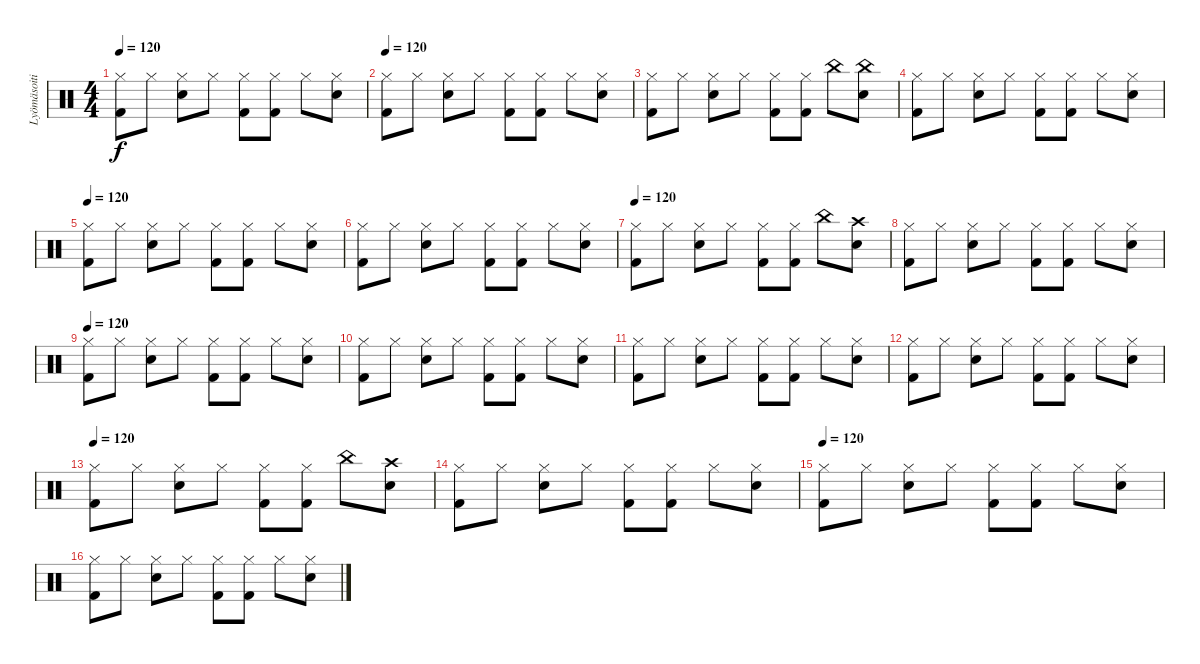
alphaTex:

\track ("Lyömäsoitin" "Lyömäsoiti") {instrument percussion}
\staff {score}
\articulation defaults
\ts (4 4)
\tempo 120
\clef neutral
\ks c
("Hi-Hat (closed)" "Kick (hit) 2").8{dy f} "Hi-Hat (closed)".8 ("Hi-Hat (closed)" "Snare (hit) 2").8 "Hi-Hat (closed)".8 ("Hi-Hat (closed)" "Kick (hit) 2").8 ("Hi-Hat (closed)" "Kick (hit) 2").8 "Hi-Hat (closed)".8 ("Hi-Hat (closed)" "Snare (hit) 2").8 |
\tempo 120
("Hi-Hat (closed)" "Kick (hit) 2").8 "Hi-Hat (closed)".8 ("Hi-Hat (closed)" "Snare (hit) 2").8 "Hi-Hat (closed)".8 ("Hi-Hat (closed)" "Kick (hit) 2").8 ("Hi-Hat (closed)" "Kick (hit) 2").8 "Hi-Hat (closed)".8 ("Hi-Hat (closed)" "Snare (hit) 2").8 |
("Hi-Hat (closed)" "Kick (hit) 2").8 "Hi-Hat (closed)".8 ("Hi-Hat (closed)" "Snare (hit) 2").8 "Hi-Hat (closed)".8 ("Hi-Hat (closed)" "Kick (hit) 2").8 ("Hi-Hat (closed)" "Kick (hit) 2").8 "China (hit)".8 ("China (hit)" "Snare (hit) 2").8 |
("Hi-Hat (closed)" "Kick (hit) 2").8 "Hi-Hat (closed)".8 ("Hi-Hat (closed)" "Snare (hit) 2").8 "Hi-Hat (closed)".8 ("Hi-Hat (closed)" "Kick (hit) 2").8 ("Hi-Hat (closed)" "Kick (hit) 2").8 "Hi-Hat (closed)".8 ("Hi-Hat (closed)" "Snare (hit) 2").8 |
\tempo 120
("Hi-Hat (closed)" "Kick (hit) 2").8 "Hi-Hat (closed)".8 ("Hi-Hat (closed)" "Snare (hit) 2").8 "Hi-Hat (closed)".8 ("Hi-Hat (closed)" "Kick (hit) 2").8 ("Hi-Hat (closed)" "Kick (hit) 2").8 "Hi-Hat (closed)".8 ("Hi-Hat (closed)" "Snare (hit) 2").8 |
("Hi-Hat (closed)" "Kick (hit) 2").8 "Hi-Hat (closed)".8 ("Hi-Hat (closed)" "Snare (hit) 2").8 "Hi-Hat (closed)".8 ("Hi-Hat (closed)" "Kick (hit) 2").8 ("Hi-Hat (closed)" "Kick (hit) 2").8 "Hi-Hat (closed)".8 ("Hi-Hat (closed)" "Snare (hit) 2").8 |
\tempo 120
("Hi-Hat (closed)" "Kick (hit) 2").8 "Hi-Hat (closed)".8 ("Hi-Hat (closed)" "Snare (hit) 2").8 "Hi-Hat (closed)".8 ("Hi-Hat (closed)" "Kick (hit) 2").8 ("Hi-Hat (closed)" "Kick (hit) 2").8 "China (hit)".8 ("Crash high (hit)" "Snare (hit) 2").8 |
("Hi-Hat (closed)" "Kick (hit) 2").8 "Hi-Hat (closed)".8 ("Hi-Hat (closed)" "Snare (hit) 2").8 "Hi-Hat (closed)".8 ("Hi-Hat (closed)" "Kick (hit) 2").8 ("Hi-Hat (closed)" "Kick (hit) 2").8 "Hi-Hat (closed)".8 ("Hi-Hat (closed)" "Snare (hit) 2").8 |
\tempo 120
("Hi-Hat (closed)" "Kick (hit) 2").8 "Hi-Hat (closed)".8 ("Hi-Hat (closed)" "Snare (hit) 2").8 "Hi-Hat (closed)".8 ("Hi-Hat (closed)" "Kick (hit) 2").8 ("Hi-Hat (closed)" "Kick (hit) 2").8 "Hi-Hat (closed)".8 ("Hi-Hat (closed)" "Snare (hit) 2").8 |
("Hi-Hat (closed)" "Kick (hit) 2").8 "Hi-Hat (closed)".8 ("Hi-Hat (closed)" "Snare (hit) 2").8 "Hi-Hat (closed)".8 ("Hi-Hat (closed)" "Kick (hit) 2").8 ("Hi-Hat (closed)" "Kick (hit) 2").8 "Hi-Hat (closed)".8 ("Hi-Hat (closed)" "Snare (hit) 2").8 |
("Hi-Hat (closed)" "Kick (hit) 2").8 "Hi-Hat (closed)".8 ("Hi-Hat (closed)" "Snare (hit) 2").8 "Hi-Hat (closed)".8 ("Hi-Hat (closed)" "Kick (hit) 2").8 ("Hi-Hat (closed)" "Kick (hit) 2").8 "Hi-Hat (closed)".8 ("Hi-Hat (closed)" "Snare (hit) 2").8 |
("Hi-Hat (closed)" "Kick (hit) 2").8 "Hi-Hat (closed)".8 ("Hi-Hat (closed)" "Snare (hit) 2").8 "Hi-Hat (closed)".8 ("Hi-Hat (closed)" "Kick (hit) 2").8 ("Hi-Hat (closed)" "Kick (hit) 2").8 "Hi-Hat (closed)".8 ("Hi-Hat (closed)" "Snare (hit) 2").8 |
\tempo 120
("Hi-Hat (closed)" "Kick (hit) 2").8 "Hi-Hat (closed)".8 ("Hi-Hat (closed)" "Snare (hit) 2").8 "Hi-Hat (closed)".8 ("Hi-Hat (closed)" "Kick (hit) 2").8 ("Hi-Hat (closed)" "Kick (hit) 2").8 "China (hit)".8 ("Crash high (hit)" "Snare (hit) 2").8 |
("Hi-Hat (closed)" "Kick (hit) 2").8 "Hi-Hat (closed)".8 ("Hi-Hat (closed)" "Snare (hit) 2").8 "Hi-Hat (closed)".8 ("Hi-Hat (closed)" "Kick (hit) 2").8 ("Hi-Hat (closed)" "Kick (hit) 2").8 "Hi-Hat (closed)".8 ("Hi-Hat (closed)" "Snare (hit) 2").8 |
\tempo 120
("Hi-Hat (closed)" "Kick (hit) 2").8 "Hi-Hat (closed)".8 ("Hi-Hat (closed)" "Snare (hit) 2").8 "Hi-Hat (closed)".8 ("Hi-Hat (closed)" "Kick (hit) 2").8 ("Hi-Hat (closed)" "Kick (hit) 2").8 "Hi-Hat (closed)".8 ("Hi-Hat (closed)" "Snare (hit) 2").8 |
("Hi-Hat (closed)" "Kick (hit) 2").8 "Hi-Hat (closed)".8 ("Hi-Hat (closed)" "Snare (hit) 2").8 "Hi-Hat (closed)".8 ("Hi-Hat (closed)" "Kick (hit) 2").8 ("Hi-Hat (closed)" "Kick (hit) 2").8 "Hi-Hat (closed)".8 ("Hi-Hat (closed)" "Snare (hit) 2").8
